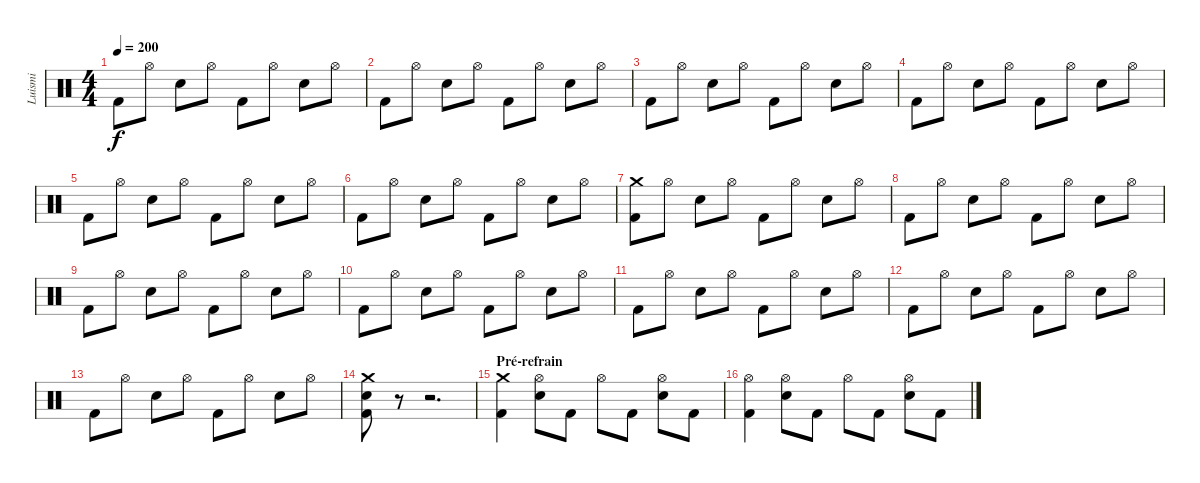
\track ("Luismi" "Luismi") {instrument percussion}
\staff {score}
\articulation defaults
\ts (4 4)
\tempo 200
\clef neutral
\ks c "Kick (hit) 2".8{dy f} "Hi-Hat (open)".8 "Snare (hit) 2".8 "Hi-Hat (open)".8 "Kick (hit) 2".8 "Hi-Hat (open)".8 "Snare (hit) 2".8 "Hi-Hat (open)".8
|
"Kick (hit) 2".8 "Hi-Hat (open)".8 "Snare (hit) 2".8 "Hi-Hat (open)".8 "Kick (hit) 2".8 "Hi-Hat (open)".8 "Snare (hit) 2".8 "Hi-Hat (open)".8 |
"Kick (hit) 2".8 "Hi-Hat (open)".8 "Snare (hit) 2".8 "Hi-Hat (open)".8 "Kick (hit) 2".8 "Hi-Hat (open)".8 "Snare (hit) 2".8 "Hi-Hat (open)".8 |
"Kick (hit) 2".8 "Hi-Hat (open)".8 "Snare (hit) 2".8 "Hi-Hat (open)".8 "Kick (hit) 2".8 "Hi-Hat (open)".8 "Snare (hit) 2".8 "Hi-Hat (open)".8 |
"Kick (hit) 2".8 "Hi-Hat (open)".8 "Snare (hit) 2".8 "Hi-Hat (open)".8 "Kick (hit) 2".8 "Hi-Hat (open)".8 "Snare (hit) 2".8 "Hi-Hat (open)".8 |
"Kick (hit) 2".8 "Hi-Hat (open)".8 "Snare (hit) 2".8 "Hi-Hat (open)".8 "Kick (hit) 2".8 "Hi-Hat (open)".8 "Snare (hit) 2".8 "Hi-Hat (open)".8 |
("Crash medium (hit)" "Kick (hit) 2").8 "Hi-Hat (open)".8 "Snare (hit) 2".8 "Hi-Hat (open)".8 "Kick (hit) 2".8 "Hi-Hat (open)".8 "Snare (hit) 2".8 "Hi-Hat (open)".8 |
"Kick (hit) 2".8 "Hi-Hat (open)".8 "Snare (hit) 2".8 "Hi-Hat (open)".8 "Kick (hit) 2".8 "Hi-Hat (open)".8 "Snare (hit) 2".8 "Hi-Hat (open)".8 |
"Kick (hit) 2".8 "Hi-Hat (open)".8 "Snare (hit) 2".8 "Hi-Hat (open)".8 "Kick (hit) 2".8 "Hi-Hat (open)".8 "Snare (hit) 2".8 "Hi-Hat (open)".8 |
"Kick (hit) 2".8 "Hi-Hat (open)".8 "Snare (hit) 2".8 "Hi-Hat (open)".8 "Kick (hit) 2".8 "Hi-Hat (open)".8 "Snare (hit) 2".8 "Hi-Hat (open)".8 |
"Kick (hit) 2".8 "Hi-Hat (open)".8 "Snare (hit) 2".8 "Hi-Hat (open)".8 "Kick (hit) 2".8 "Hi-Hat (open)".8 "Snare (hit) 2".8 "Hi-Hat (open)".8 |
"Kick (hit) 2".8 "Hi-Hat (open)".8 "Snare (hit) 2".8 "Hi-Hat (open)".8 "Kick (hit) 2".8 "Hi-Hat (open)".8 "Snare (hit) 2".8 "Hi-Hat (open)".8 |
"Kick (hit) 2".8 "Hi-Hat (open)".8 "Snare (hit) 2".8 "Hi-Hat (open)".8 "Kick (hit) 2".8 "Hi-Hat (open)".8 "Snare (hit) 2".8 "Hi-Hat (open)".8 |
("Crash medium (hit)" "Snare (hit) 2" "Kick (hit) 2").8 r.8 r.2{d} |
\section ("" "Pré-refrain")
("Crash medium (hit)" "Kick (hit) 2").4 ("Hi-Hat (open)" "Snare (hit) 2").8 "Kick (hit) 2".8 "Hi-Hat (open)".8 "Kick (hit) 2".8 ("Hi-Hat (open)" "Snare (hit) 2").8 "Kick (hit) 2".8 |
("Hi-Hat (open)" "Kick (hit) 2").4 ("Hi-Hat (open)" "Snare (hit) 2").8 "Kick (hit) 2".8 "Hi-Hat (open)".8 "Kick (hit) 2".8 ("Hi-Hat (open)" "Snare (hit) 2").8 "Kick (hit) 2".8
